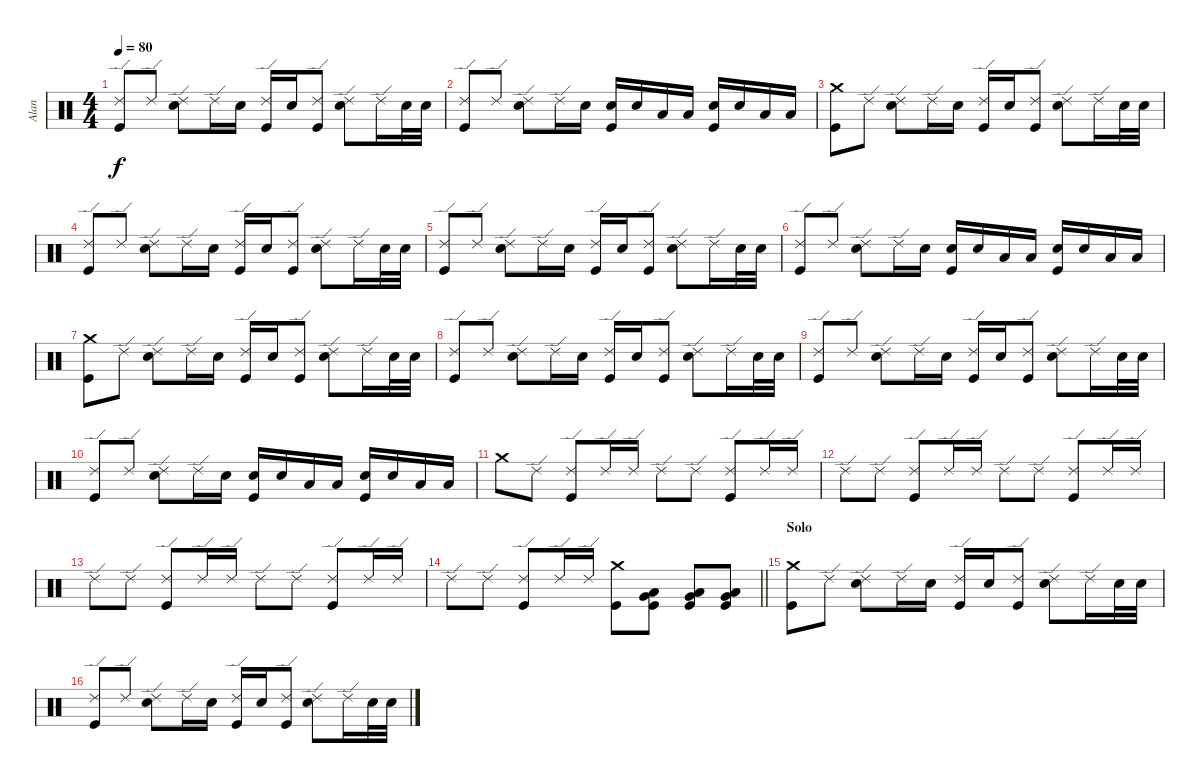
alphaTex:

\track ("Alan" "Alan") {instrument percussion}
\staff {score}
\articulation defaults
\ts (4 4)
\tempo 80
\clef neutral
\ks c
("Ride (edge) 2" "Kick (hit)").8{dy f} "Ride (edge) 2".8 ("Ride (edge) 2" "Snare (hit) 2").8 "Ride (edge) 2".16 "Snare (hit) 2".16 ("Ride (edge) 2" "Kick (hit)").16 "Snare (hit) 2".16 ("Ride (edge) 2" "Kick (hit)").8 ("Ride (edge) 2" "Snare (hit) 2").8 "Ride (edge) 2".16 "Snare (hit) 2".32 "Snare (hit) 2".32 |
("Ride (edge) 2" "Kick (hit)").8 "Ride (edge) 2".8 ("Ride (edge) 2" "Snare (hit) 2").8 "Ride (edge) 2".16 "Snare (hit) 2".16 ("Kick (hit)" "Snare (hit) 2").16 "Snare (hit) 2".16 "Low Floor Tom (hit)".16 "Low Tom (hit)".16 ("Kick (hit)" "Snare (hit) 2").16 "Snare (hit) 2".16 "Low Floor Tom (hit)".16 "Low Tom (hit)".16 |
("Crash medium (hit)" "Kick (hit)").8 "Ride (edge) 2".8 ("Ride (edge) 2" "Snare (hit) 2").8 "Ride (edge) 2".16 "Snare (hit) 2".16 ("Ride (edge) 2" "Kick (hit)").16 "Snare (hit) 2".16 ("Ride (edge) 2" "Kick (hit)").8 ("Ride (edge) 2" "Snare (hit) 2").8 "Ride (edge) 2".16 "Snare (hit) 2".32 "Snare (hit) 2".32 |
("Ride (edge) 2" "Kick (hit)").8 "Ride (edge) 2".8 ("Ride (edge) 2" "Snare (hit) 2").8 "Ride (edge) 2".16 "Snare (hit) 2".16 ("Ride (edge) 2" "Kick (hit)").16 "Snare (hit) 2".16 ("Ride (edge) 2" "Kick (hit)").8 ("Ride (edge) 2" "Snare (hit) 2").8 "Ride (edge) 2".16 "Snare (hit) 2".32 "Snare (hit) 2".32 |
("Ride (edge) 2" "Kick (hit)").8 "Ride (edge) 2".8 ("Ride (edge) 2" "Snare (hit) 2").8 "Ride (edge) 2".16 "Snare (hit) 2".16 ("Ride (edge) 2" "Kick (hit)").16 "Snare (hit) 2".16 ("Ride (edge) 2" "Kick (hit)").8 ("Ride (edge) 2" "Snare (hit) 2").8 "Ride (edge) 2".16 "Snare (hit) 2".32 "Snare (hit) 2".32 |
("Ride (edge) 2" "Kick (hit)").8 "Ride (edge) 2".8 ("Ride (edge) 2" "Snare (hit) 2").8 "Ride (edge) 2".16 "Snare (hit) 2".16 ("Kick (hit)" "Snare (hit) 2").16 "Snare (hit) 2".16 "Low Floor Tom (hit)".16 "Low Tom (hit)".16 ("Kick (hit)" "Snare (hit) 2").16 "Snare (hit) 2".16 "Low Floor Tom (hit)".16 "Low Tom (hit)".16 |
("Crash medium (hit)" "Kick (hit)").8 "Ride (edge) 2".8 ("Ride (edge) 2" "Snare (hit) 2").8 "Ride (edge) 2".16 "Snare (hit) 2".16 ("Ride (edge) 2" "Kick (hit)").16 "Snare (hit) 2".16 ("Ride (edge) 2" "Kick (hit)").8 ("Ride (edge) 2" "Snare (hit) 2").8 "Ride (edge) 2".16 "Snare (hit) 2".32 "Snare (hit) 2".32 |
("Ride (edge) 2" "Kick (hit)").8 "Ride (edge) 2".8 ("Ride (edge) 2" "Snare (hit) 2").8 "Ride (edge) 2".16 "Snare (hit) 2".16 ("Ride (edge) 2" "Kick (hit)").16 "Snare (hit) 2".16 ("Ride (edge) 2" "Kick (hit)").8 ("Ride (edge) 2" "Snare (hit) 2").8 "Ride (edge) 2".16 "Snare (hit) 2".32 "Snare (hit) 2".32 |
("Ride (edge) 2" "Kick (hit)").8 "Ride (edge) 2".8 ("Ride (edge) 2" "Snare (hit) 2").8 "Ride (edge) 2".16 "Snare (hit) 2".16 ("Ride (edge) 2" "Kick (hit)").16 "Snare (hit) 2".16 ("Ride (edge) 2" "Kick (hit)").8 ("Ride (edge) 2" "Snare (hit) 2").8 "Ride (edge) 2".16 "Snare (hit) 2".32 "Snare (hit) 2".32 |
("Ride (edge) 2" "Kick (hit)").8 "Ride (edge) 2".8 ("Ride (edge) 2" "Snare (hit) 2").8 "Ride (edge) 2".16 "Snare (hit) 2".16 ("Kick (hit)" "Snare (hit) 2").16 "Snare (hit) 2".16 "Low Floor Tom (hit)".16 "Low Tom (hit)".16 ("Kick (hit)" "Snare (hit) 2").16 "Snare (hit) 2".16 "Low Floor Tom (hit)".16 "Low Tom (hit)".16 |
"Crash medium (hit)".8 "Ride (edge) 2".8 ("Ride (edge) 2" "Kick (hit)").8 "Ride (edge) 2".16 "Ride (edge) 2".16 "Ride (edge) 2".8 "Ride (edge) 2".8 ("Ride (edge) 2" "Kick (hit)").8 "Ride (edge) 2".16 "Ride (edge) 2".16 |
"Ride (edge) 2".8 "Ride (edge) 2".8 ("Ride (edge) 2" "Kick (hit)").8 "Ride (edge) 2".16 "Ride (edge) 2".16 "Ride (edge) 2".8 "Ride (edge) 2".8 ("Ride (edge) 2" "Kick (hit)").8 "Ride (edge) 2".16 "Ride (edge) 2".16 |
"Ride (edge) 2".8 "Ride (edge) 2".8 ("Ride (edge) 2" "Kick (hit)").8 "Ride (edge) 2".16 "Ride (edge) 2".16 "Ride (edge) 2".8 "Ride (edge) 2".8 ("Ride (edge) 2" "Kick (hit)").8 "Ride (edge) 2".16 "Ride (edge) 2".16 |
\barLineRight lightlight "Ride (edge) 2".8 "Ride (edge) 2".8
("Ride (edge) 2" "Kick (hit)").8 "Ride (edge) 2".16 "Ride (edge) 2".16 ("Crash medium (hit)" "Kick (hit)").8 ("Kick (hit)" "Very Low Tom (hit)" "Low Tom (hit)").8 ("Kick (hit)" "Very Low Tom (hit)" "Low Tom (hit)").8 ("Kick (hit)" "Very Low Tom (hit)" "Low Tom (hit)").8 |
\section ("" "Solo")
("Crash medium (hit)" "Kick (hit)").8 "Ride (edge) 2".8 ("Ride (edge) 2" "Snare (hit) 2").8 "Ride (edge) 2".16 "Snare (hit) 2".16 ("Ride (edge) 2" "Kick (hit)").16 "Snare (hit) 2".16 ("Ride (edge) 2" "Kick (hit)").8 ("Ride (edge) 2" "Snare (hit) 2").8 "Ride (edge) 2".16 "Snare (hit) 2".32 "Snare (hit) 2".32 |
("Ride (edge) 2" "Kick (hit)").8 "Ride (edge) 2".8 ("Ride (edge) 2" "Snare (hit) 2").8 "Ride (edge) 2".16 "Snare (hit) 2".16 ("Ride (edge) 2" "Kick (hit)").16 "Snare (hit) 2".16 ("Ride (edge) 2" "Kick (hit)").8 ("Ride (edge) 2" "Snare (hit) 2").8 "Ride (edge) 2".16 "Snare (hit) 2".32 "Snare (hit) 2".32
